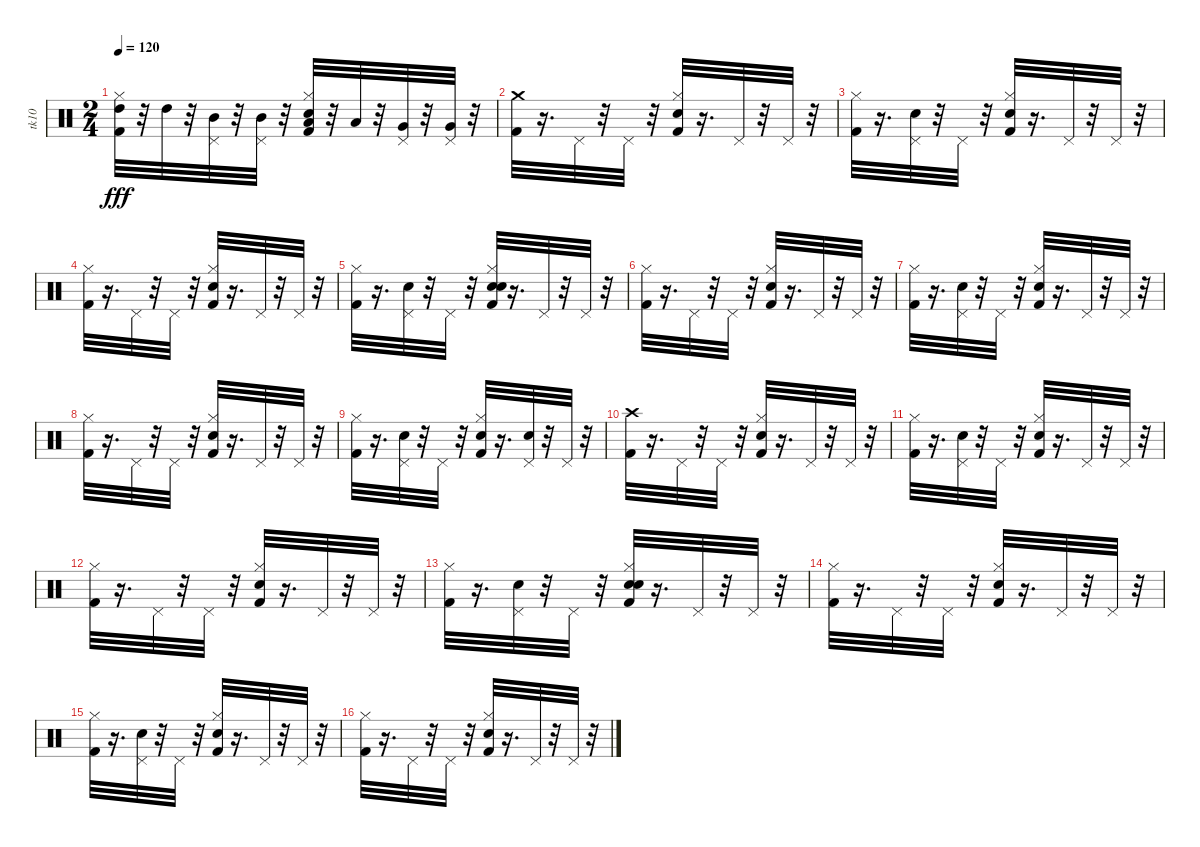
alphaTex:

\track ("tk10" "tk10") {instrument percussion}
\staff {score}
\articulation defaults
\ts (2 4)
\tempo 120
\clef neutral
\ks c
("Kick (hit) 2" "High Tom (hit)" "Hi-Hat (closed)").32{dy fff} r.32 "High Tom (hit)".32 r.32 ("Mid Tom (hit)" "Pedal Hi-Hat (hit)").32 r.32 ("Mid Tom (hit)" "Pedal Hi-Hat (hit)").32 r.32 ("Snare (hit) 2" "Kick (hit) 2" "Low Tom (hit)" "Hi-Hat (closed)").32 r.32 "Low Tom (hit)".32 r.32 ("Very Low Tom (hit)" "Pedal Hi-Hat (hit)").32 r.32 ("Very Low Tom (hit)" "Pedal Hi-Hat (hit)").32 r.32 |
("Kick (hit) 2" "Crash medium (hit)").32 r.16{d} "Pedal Hi-Hat (hit)".32 r.32 "Pedal Hi-Hat (hit)".32 r.32 ("Snare (hit) 2" "Kick (hit) 2" "Hi-Hat (closed)").32 r.16{d} "Pedal Hi-Hat (hit)".32 r.32 "Pedal Hi-Hat (hit)".32 r.32 |
("Kick (hit) 2" "Hi-Hat (closed)").32 r.16{d} ("Pedal Hi-Hat (hit)" "Hand Clap (hit)").32 r.32 "Pedal Hi-Hat (hit)".32 r.32 ("Snare (hit) 2" "Kick (hit) 2" "Hi-Hat (closed)").32 r.16{d} "Pedal Hi-Hat (hit)".32 r.32 "Pedal Hi-Hat (hit)".32 r.32 |
("Kick (hit) 2" "Hi-Hat (closed)").32 r.16{d} "Pedal Hi-Hat (hit)".32 r.32 "Pedal Hi-Hat (hit)".32 r.32 ("Snare (hit) 2" "Kick (hit) 2" "Hi-Hat (closed)").32 r.16{d} "Pedal Hi-Hat (hit)".32 r.32 "Pedal Hi-Hat (hit)".32 r.32 |
("Kick (hit) 2" "Hi-Hat (closed)").32 r.16{d} ("Hand Clap (hit)" "Pedal Hi-Hat (hit)").32 r.32 "Pedal Hi-Hat (hit)".32 r.32 ("Snare (hit) 2" "Kick (hit) 2" "Hand Clap (hit)" "Hi-Hat (closed)").32 r.16{d} "Pedal Hi-Hat (hit)".32 r.32 "Pedal Hi-Hat (hit)".32 r.32 |
("Kick (hit) 2" "Hi-Hat (closed)").32 r.16{d} "Pedal Hi-Hat (hit)".32 r.32 "Pedal Hi-Hat (hit)".32 r.32 ("Kick (hit) 2" "Snare (hit) 2" "Hi-Hat (closed)").32 r.16{d} "Pedal Hi-Hat (hit)".32 r.32 "Pedal Hi-Hat (hit)".32 r.32 |
("Kick (hit) 2" "Hi-Hat (closed)").32 r.16{d} ("Hand Clap (hit)" "Pedal Hi-Hat (hit)").32 r.32 "Pedal Hi-Hat (hit)".32 r.32 ("Kick (hit) 2" "Snare (hit) 2" "Hi-Hat (closed)").32 r.16{d} "Pedal Hi-Hat (hit)".32 r.32 "Pedal Hi-Hat (hit)".32 r.32 |
("Kick (hit) 2" "Hi-Hat (closed)").32 r.16{d} "Pedal Hi-Hat (hit)".32 r.32 "Pedal Hi-Hat (hit)".32 r.32 ("Snare (hit) 2" "Kick (hit) 2" "Hi-Hat (closed)").32 r.16{d} "Pedal Hi-Hat (hit)".32 r.32 "Pedal Hi-Hat (hit)".32 r.32 |
("Kick (hit) 2" "Hi-Hat (closed)").32 r.16{d} ("Hand Clap (hit)" "Pedal Hi-Hat (hit)").32 r.32 "Pedal Hi-Hat (hit)".32 r.32 ("Snare (hit) 2" "Kick (hit) 2" "Hi-Hat (closed)").32 r.16{d} ("Hand Clap (hit)" "Pedal Hi-Hat (hit)").32 r.32 "Pedal Hi-Hat (hit)".32 r.32 |
("Kick (hit) 2" "Crash high (hit)").32 r.16{d} "Pedal Hi-Hat (hit)".32 r.32 "Pedal Hi-Hat (hit)".32 r.32 ("Snare (hit) 2" "Kick (hit) 2" "Hi-Hat (closed)").32 r.16{d} "Pedal Hi-Hat (hit)".32 r.32 "Pedal Hi-Hat (hit)".32 r.32 |
("Kick (hit) 2" "Hi-Hat (closed)").32 r.16{d} ("Pedal Hi-Hat (hit)" "Hand Clap (hit)").32 r.32 "Pedal Hi-Hat (hit)".32 r.32 ("Snare (hit) 2" "Kick (hit) 2" "Hi-Hat (closed)").32 r.16{d} "Pedal Hi-Hat (hit)".32 r.32 "Pedal Hi-Hat (hit)".32 r.32 |
("Kick (hit) 2" "Hi-Hat (closed)").32 r.16{d} "Pedal Hi-Hat (hit)".32 r.32 "Pedal Hi-Hat (hit)".32 r.32 ("Snare (hit) 2" "Kick (hit) 2" "Hi-Hat (closed)").32 r.16{d} "Pedal Hi-Hat (hit)".32 r.32 "Pedal Hi-Hat (hit)".32 r.32 |
("Kick (hit) 2" "Hi-Hat (closed)").32 r.16{d} ("Hand Clap (hit)" "Pedal Hi-Hat (hit)").32 r.32 "Pedal Hi-Hat (hit)".32 r.32 ("Snare (hit) 2" "Kick (hit) 2" "Hand Clap (hit)" "Hi-Hat (closed)").32 r.16{d} "Pedal Hi-Hat (hit)".32 r.32 "Pedal Hi-Hat (hit)".32 r.32 |
("Kick (hit) 2" "Hi-Hat (closed)").32 r.16{d} "Pedal Hi-Hat (hit)".32 r.32 "Pedal Hi-Hat (hit)".32 r.32 ("Kick (hit) 2" "Snare (hit) 2" "Hi-Hat (closed)").32 r.16{d} "Pedal Hi-Hat (hit)".32 r.32 "Pedal Hi-Hat (hit)".32 r.32 |
("Kick (hit) 2" "Hi-Hat (closed)").32 r.16{d} ("Hand Clap (hit)" "Pedal Hi-Hat (hit)").32 r.32 "Pedal Hi-Hat (hit)".32 r.32 ("Kick (hit) 2" "Snare (hit) 2" "Hi-Hat (closed)").32 r.16{d} "Pedal Hi-Hat (hit)".32 r.32 "Pedal Hi-Hat (hit)".32 r.32 |
("Kick (hit) 2" "Hi-Hat (closed)").32 r.16{d} "Pedal Hi-Hat (hit)".32 r.32 "Pedal Hi-Hat (hit)".32 r.32 ("Snare (hit) 2" "Kick (hit) 2" "Hi-Hat (closed)").32 r.16{d} "Pedal Hi-Hat (hit)".32 r.32 "Pedal Hi-Hat (hit)".32 r.32
